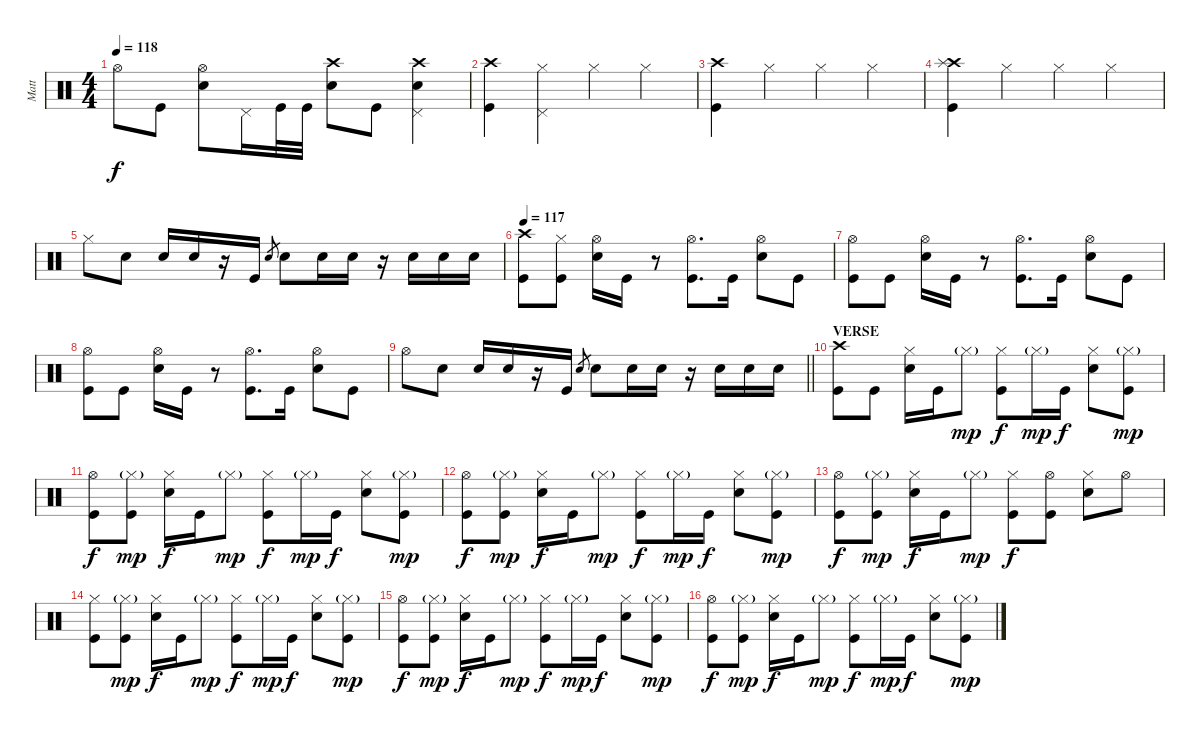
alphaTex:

\track ("Matt" "Matt") {instrument percussion}
\staff {score}
\articulation defaults
\ts (4 4)
\tempo 118
\clef neutral
\ks c "Hi-Hat (open)".8{dy f} "Kick (hit)".8
("Snare (hit) 2" "Hi-Hat (open)").8 "Pedal Hi-Hat (hit)".16 "Kick (hit)".32 "Kick (hit)".32 ("Crash high (hit)" "Snare (hit) 2").8 "Kick (hit)".8 ("Crash high (hit)" "Snare (hit) 2" "Pedal Hi-Hat (hit)").4 |
("Crash high (hit)" "Kick (hit)").4 ("Pedal Hi-Hat (hit)" "Hi-Hat (closed)").4 "Hi-Hat (closed)".4 "Hi-Hat (closed)".4 |
("Crash high (hit)" "Kick (hit)").4 "Hi-Hat (closed)".4 "Hi-Hat (closed)".4 "Hi-Hat (closed)".4 |
("Crash high (hit)" "Splash (hit)" "Kick (hit)").4 "Hi-Hat (closed)".4 "Hi-Hat (closed)".4 "Hi-Hat (closed)".4 |
"Hi-Hat (closed)".8 "Snare (hit) 2".8 "Snare (hit) 2".16 "Snare (hit) 2".16 r.16 "Kick (hit)".16 "Snare (hit) 2".8{gr} "Snare (hit) 2".8 "Snare (hit) 2".16 "Snare (hit) 2".16 r.16 "Snare (hit) 2".16 "Snare (hit) 2".16 "Snare (hit) 2".16 |
\tempo 117
("Crash high (hit)" "Kick (hit)").8 ("Kick (hit)" "Hi-Hat (closed)").8 ("Snare (hit) 2" "Hi-Hat (open)").16 "Kick (hit)".16 r.8 ("Kick (hit)" "Hi-Hat (open)").8{d} "Kick (hit)".16 ("Snare (hit) 2" "Hi-Hat (open)").8 "Kick (hit)".8 |
("Kick (hit)" "Hi-Hat (open)").8 "Kick (hit)".8 ("Snare (hit) 2" "Hi-Hat (open)").16 "Kick (hit)".16 r.8 ("Kick (hit)" "Hi-Hat (open)").8{d} "Kick (hit)".16 ("Snare (hit) 2" "Hi-Hat (open)").8 "Kick (hit)".8 |
("Kick (hit)" "Hi-Hat (open)").8 "Kick (hit)".8 ("Snare (hit) 2" "Hi-Hat (open)").16 "Kick (hit)".16 r.8 ("Kick (hit)" "Hi-Hat (open)").8{d} "Kick (hit)".16 ("Snare (hit) 2" "Hi-Hat (open)").8 "Kick (hit)".8 |
\barLineRight lightlight "Hi-Hat (open)".8 "Snare (hit) 2".8 "Snare (hit) 2".16 "Snare (hit) 2".16
r.16 "Kick (hit)".16 "Snare (hit) 2".8{gr} "Snare (hit) 2".8 "Snare (hit) 2".16 "Snare (hit) 2".16 r.16 "Snare (hit) 2".16 "Snare (hit) 2".16 "Snare (hit) 2".16 |
\section ("" "VERSE")
("Crash high (hit)" "Kick (hit)").8 "Kick (hit)".8 ("Snare (hit) 2" "Hi-Hat (closed)").16 "Kick (hit)".16 "Hi-Hat (closed)"{g}.8{dy mp} ("Kick (hit)" "Hi-Hat (closed)").8{dy f} "Hi-Hat (closed)"{g}.16{dy mp} "Kick (hit)".16{dy f} ("Snare (hit) 2" "Hi-Hat (closed)").8 ("Kick (hit)" "Hi-Hat (closed)"{g}).8{dy mp} |
("Kick (hit)" "Hi-Hat (open)").8{dy f} ("Kick (hit)" "Hi-Hat (closed)"{g}).8{dy mp} ("Snare (hit) 2" "Hi-Hat (closed)").16{dy f} "Kick (hit)".16 "Hi-Hat (closed)"{g}.8{dy mp} ("Kick (hit)" "Hi-Hat (closed)").8{dy f} "Hi-Hat (closed)"{g}.16{dy mp} "Kick (hit)".16{dy f} ("Snare (hit) 2" "Hi-Hat (closed)").8 ("Kick (hit)" "Hi-Hat (closed)"{g}).8{dy mp} |
("Kick (hit)" "Hi-Hat (open)").8{dy f} ("Kick (hit)" "Hi-Hat (closed)"{g}).8{dy mp} ("Snare (hit) 2" "Hi-Hat (closed)").16{dy f} "Kick (hit)".16 "Hi-Hat (closed)"{g}.8{dy mp} ("Kick (hit)" "Hi-Hat (closed)").8{dy f} "Hi-Hat (closed)"{g}.16{dy mp} "Kick (hit)".16{dy f} ("Snare (hit) 2" "Hi-Hat (closed)").8 ("Kick (hit)" "Hi-Hat (closed)"{g}).8{dy mp} |
("Kick (hit)" "Hi-Hat (open)").8{dy f} ("Kick (hit)" "Hi-Hat (closed)"{g}).8{dy mp} ("Snare (hit) 2" "Hi-Hat (closed)").16{dy f} "Kick (hit)".16 "Hi-Hat (closed)"{g}.8{dy mp} ("Kick (hit)" "Hi-Hat (closed)").8{dy f} ("Kick (hit)" "Hi-Hat (open)").8 ("Snare (hit) 2" "Hi-Hat (closed)").8 "Hi-Hat (open)".8 |
("Kick (hit)" "Hi-Hat (closed)").8 ("Kick (hit)" "Hi-Hat (closed)"{g}).8{dy mp} ("Snare (hit) 2" "Hi-Hat (closed)").16{dy f} "Kick (hit)".16 "Hi-Hat (closed)"{g}.8{dy mp} ("Kick (hit)" "Hi-Hat (closed)").8{dy f} "Hi-Hat (closed)"{g}.16{dy mp} "Kick (hit)".16{dy f} ("Snare (hit) 2" "Hi-Hat (closed)").8 ("Kick (hit)" "Hi-Hat (closed)"{g}).8{dy mp} |
("Kick (hit)" "Hi-Hat (open)").8{dy f} ("Kick (hit)" "Hi-Hat (closed)"{g}).8{dy mp} ("Snare (hit) 2" "Hi-Hat (closed)").16{dy f} "Kick (hit)".16 "Hi-Hat (closed)"{g}.8{dy mp} ("Kick (hit)" "Hi-Hat (closed)").8{dy f} "Hi-Hat (closed)"{g}.16{dy mp} "Kick (hit)".16{dy f} ("Snare (hit) 2" "Hi-Hat (closed)").8 ("Kick (hit)" "Hi-Hat (closed)"{g}).8{dy mp} |
("Kick (hit)" "Hi-Hat (open)").8{dy f} ("Kick (hit)" "Hi-Hat (closed)"{g}).8{dy mp} ("Snare (hit) 2" "Hi-Hat (closed)").16{dy f} "Kick (hit)".16 "Hi-Hat (closed)"{g}.8{dy mp} ("Kick (hit)" "Hi-Hat (closed)").8{dy f} "Hi-Hat (closed)"{g}.16{dy mp} "Kick (hit)".16{dy f} ("Snare (hit) 2" "Hi-Hat (closed)").8 ("Kick (hit)" "Hi-Hat (closed)"{g}).8{dy mp}
